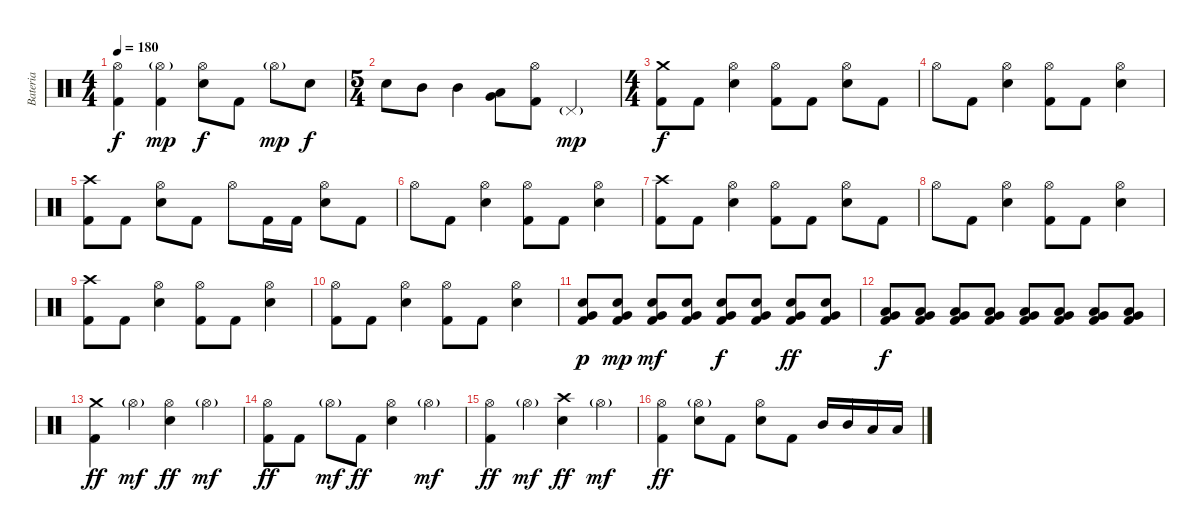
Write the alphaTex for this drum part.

\track ("Bateria" "Bateria") {instrument percussion}
\staff {score}
\articulation defaults
\ts (4 4)
\tempo 180
\clef neutral
\ks c
("Hi-Hat (open)" "Kick (hit) 2").4{dy f} ("Hi-Hat (open)"{g} "Kick (hit) 2").4{dy mp} ("Hi-Hat (open)" "Electric Snare (hit)").8{dy f} "Kick (hit) 2".8 "Hi-Hat (open)"{g}.8{dy mp} "Electric Snare (hit)".8{dy f} |
\ts (5 4)
"Electric Snare (hit)".8 "Mid Tom (hit)".8 "Mid Tom (hit)".4 ("Low Tom (hit)" "Very Low Tom (hit)").8 ("Hi-Hat (open)" "Kick (hit) 2").8 "Pedal Hi-Hat (hit)"{g}.2{dy mp} |
\ts (4 4)
("Crash medium (hit)" "Kick (hit) 2").8{dy f} "Kick (hit) 2".8 ("Hi-Hat (open)" "Electric Snare (hit)").4 ("Hi-Hat (open)" "Kick (hit) 2").8 "Kick (hit) 2".8 ("Hi-Hat (open)" "Electric Snare (hit)").8 "Kick (hit) 2".8 |
"Hi-Hat (open)".8 "Kick (hit) 2".8 ("Hi-Hat (open)" "Electric Snare (hit)").4 ("Hi-Hat (open)" "Kick (hit) 2").8 "Kick (hit) 2".8 ("Hi-Hat (open)" "Electric Snare (hit)").4 |
("Crash high (hit)" "Kick (hit) 2").8 "Kick (hit) 2".8 ("Hi-Hat (open)" "Electric Snare (hit)").8 "Kick (hit) 2".8 "Hi-Hat (open)".8 "Kick (hit) 2".16 "Kick (hit) 2".16 ("Hi-Hat (open)" "Electric Snare (hit)").8 "Kick (hit) 2".8 |
"Hi-Hat (open)".8 "Kick (hit) 2".8 ("Hi-Hat (open)" "Electric Snare (hit)").4 ("Hi-Hat (open)" "Kick (hit) 2").8 "Kick (hit) 2".8 ("Hi-Hat (open)" "Electric Snare (hit)").4 |
("Crash high (hit)" "Kick (hit) 2").8 "Kick (hit) 2".8 ("Hi-Hat (open)" "Electric Snare (hit)").4 ("Hi-Hat (open)" "Kick (hit) 2").8 "Kick (hit) 2".8 ("Hi-Hat (open)" "Electric Snare (hit)").8 "Kick (hit) 2".8 |
"Hi-Hat (open)".8 "Kick (hit) 2".8 ("Hi-Hat (open)" "Electric Snare (hit)").4 ("Hi-Hat (open)" "Kick (hit) 2").8 "Kick (hit) 2".8 ("Hi-Hat (open)" "Electric Snare (hit)").4 |
("Crash high (hit)" "Kick (hit) 2").8 "Kick (hit) 2".8 ("Hi-Hat (open)" "Electric Snare (hit)").4 ("Hi-Hat (open)" "Kick (hit) 2").8 "Kick (hit) 2".8 ("Hi-Hat (open)" "Electric Snare (hit)").4 |
("Hi-Hat (open)" "Kick (hit) 2").8 "Kick (hit) 2".8 ("Hi-Hat (open)" "Electric Snare (hit)").4 ("Hi-Hat (open)" "Kick (hit) 2").8 "Kick (hit) 2".8 ("Hi-Hat (open)" "Electric Snare (hit)").4 |
("Electric Snare (hit)" "Very Low Tom (hit)" "Kick (hit) 2").8{dy p} ("Electric Snare (hit)" "Very Low Tom (hit)" "Kick (hit) 2").8{dy mp} ("Electric Snare (hit)" "Very Low Tom (hit)" "Kick (hit) 2").8{dy mf} ("Electric Snare (hit)" "Very Low Tom (hit)" "Kick (hit) 2").8 ("Electric Snare (hit)" "Very Low Tom (hit)" "Kick (hit) 2").8{dy f} ("Electric Snare (hit)" "Very Low Tom (hit)" "Kick (hit) 2").8 ("Electric Snare (hit)" "Very Low Tom (hit)" "Kick (hit) 2").8{dy ff} ("Electric Snare (hit)" "Very Low Tom (hit)" "Kick (hit) 2").8 |
("Low Tom (hit)" "Very Low Tom (hit)" "Kick (hit) 2").8{dy f} ("Low Tom (hit)" "Very Low Tom (hit)" "Kick (hit) 2").8 ("Low Tom (hit)" "Very Low Tom (hit)" "Kick (hit) 2").8 ("Low Tom (hit)" "Very Low Tom (hit)" "Kick (hit) 2").8 ("Low Floor Tom (hit)" "Very Low Tom (hit)" "Kick (hit) 2").8 ("Low Floor Tom (hit)" "Very Low Tom (hit)" "Kick (hit) 2").8 ("Low Floor Tom (hit)" "Very Low Tom (hit)" "Kick (hit) 2").8 ("Low Floor Tom (hit)" "Very Low Tom (hit)" "Kick (hit) 2").8 |
("Crash medium (hit)" "Kick (hit) 2").4{dy ff} "Hi-Hat (open)"{g}.4{dy mf} ("Hi-Hat (open)" "Electric Snare (hit)").4{dy ff} "Hi-Hat (open)"{g}.4{dy mf} |
("Hi-Hat (open)" "Kick (hit) 2").8{dy ff} "Kick (hit) 2".8 "Hi-Hat (open)"{g}.8{dy mf} "Kick (hit) 2".8{dy ff} ("Hi-Hat (open)" "Electric Snare (hit)").4 "Hi-Hat (open)"{g}.4{dy mf} |
("Hi-Hat (open)" "Kick (hit) 2").4{dy ff} "Hi-Hat (open)"{g}.4{dy mf} ("Crash high (hit)" "Electric Snare (hit)").4{dy ff} "Hi-Hat (open)"{g}.4{dy mf} |
("Hi-Hat (open)" "Kick (hit) 2").4{dy ff} ("Hi-Hat (open)"{g} "Electric Snare (hit)").8 "Kick (hit) 2".8 ("Hi-Hat (open)" "Electric Snare (hit)").8 "Kick (hit) 2".8 "Mid Tom (hit)".16 "Mid Tom (hit)".16 "Low Tom (hit)".16 "Low Tom (hit)".16
